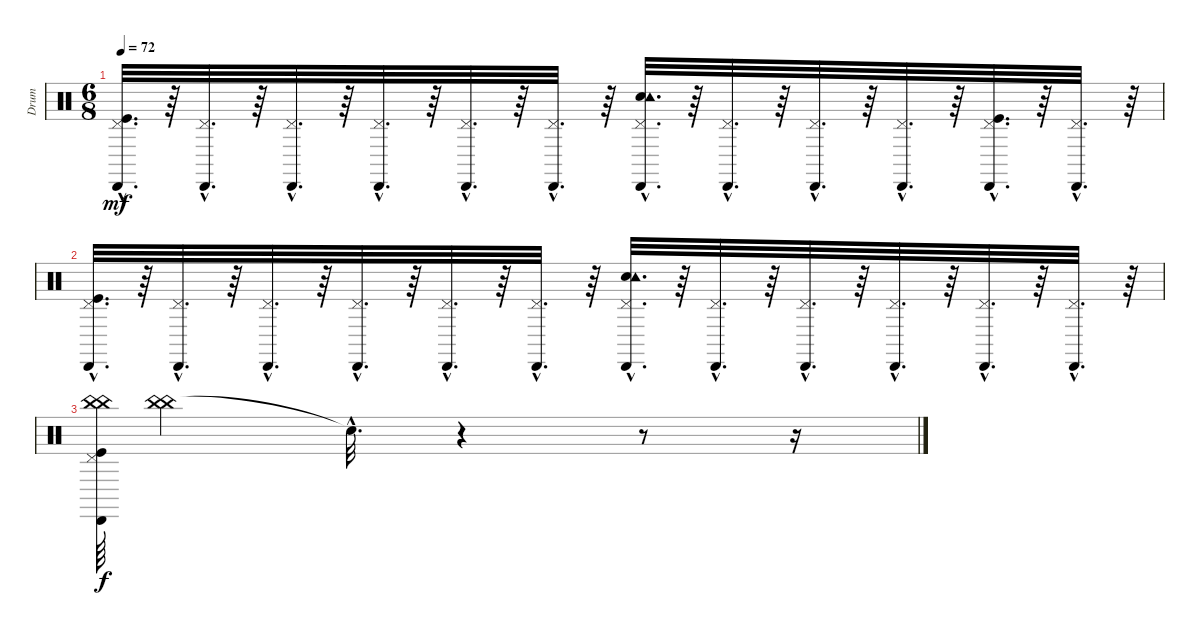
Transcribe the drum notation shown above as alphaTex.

\track ("Drum" "Drum") {instrument percussion}
\staff {score}
\articulation defaults
\ts (6 8)
\tempo 72
\clef neutral
\ks c
("Kick (hit)"{hac} "Pedal Hi-Hat (hit)"{hac} "Cabasa (hit)"{hac}).32{d dy mf} r.64 ("Pedal Hi-Hat (hit)"{hac} "Cabasa (hit)"{hac}).32{d} r.64 ("Pedal Hi-Hat (hit)"{hac} "Cabasa (hit)"{hac}).32{d} r.64 ("Pedal Hi-Hat (hit)"{hac} "Cabasa (hit)"{hac}).32{d} r.64 ("Pedal Hi-Hat (hit)"{hac} "Cabasa (hit)"{hac}).32{d} r.64 ("Pedal Hi-Hat (hit)"{hac} "Cabasa (hit)"{hac}).32{d} r.64 ("Electric Snare (hit)"{hac} "Tambourine (hit)"{hac} "Pedal Hi-Hat (hit)"{hac} "Cabasa (hit)"{hac}).32{d} r.64 ("Pedal Hi-Hat (hit)"{hac} "Cabasa (hit)"{hac}).32{d} r.64 ("Pedal Hi-Hat (hit)"{hac} "Cabasa (hit)"{hac}).32{d} r.64 ("Pedal Hi-Hat (hit)"{hac} "Cabasa (hit)"{hac}).32{d} r.64 ("Kick (hit)"{hac} "Pedal Hi-Hat (hit)"{hac} "Cabasa (hit)"{hac}).32{d} r.64 ("Pedal Hi-Hat (hit)"{hac} "Cabasa (hit)"{hac}).32{d} r.64 |
("Kick (hit)"{hac} "Pedal Hi-Hat (hit)"{hac} "Cabasa (hit)"{hac}).32{d} r.64 ("Pedal Hi-Hat (hit)"{hac} "Cabasa (hit)"{hac}).32{d} r.64 ("Pedal Hi-Hat (hit)"{hac} "Cabasa (hit)"{hac}).32{d} r.64 ("Pedal Hi-Hat (hit)"{hac} "Cabasa (hit)"{hac}).32{d} r.64 ("Pedal Hi-Hat (hit)"{hac} "Cabasa (hit)"{hac}).32{d} r.64 ("Pedal Hi-Hat (hit)"{hac} "Cabasa (hit)"{hac}).32{d} r.64 ("Electric Snare (hit)"{hac} "Tambourine (hit)"{hac} "Pedal Hi-Hat (hit)"{hac} "Cabasa (hit)"{hac}).32{d} r.64 ("Pedal Hi-Hat (hit)"{hac} "Cabasa (hit)"{hac}).32{d} r.64 ("Pedal Hi-Hat (hit)"{hac} "Cabasa (hit)"{hac}).32{d} r.64 ("Pedal Hi-Hat (hit)"{hac} "Cabasa (hit)"{hac}).32{d} r.64 ("Pedal Hi-Hat (hit)"{hac} "Cabasa (hit)"{hac}).32{d} r.64 ("Pedal Hi-Hat (hit)"{hac} "Cabasa (hit)"{hac}).32{d} r.64 |
("Cabasa (hit)" "Kick (hit)" "China (hit)" "Pedal Hi-Hat (hit)" "China (hit)").64{dy f} ("China (hit)" "China (hit)").4 "Snare (hit)"{hac t}.32{d} r.4 r.8 r.16
